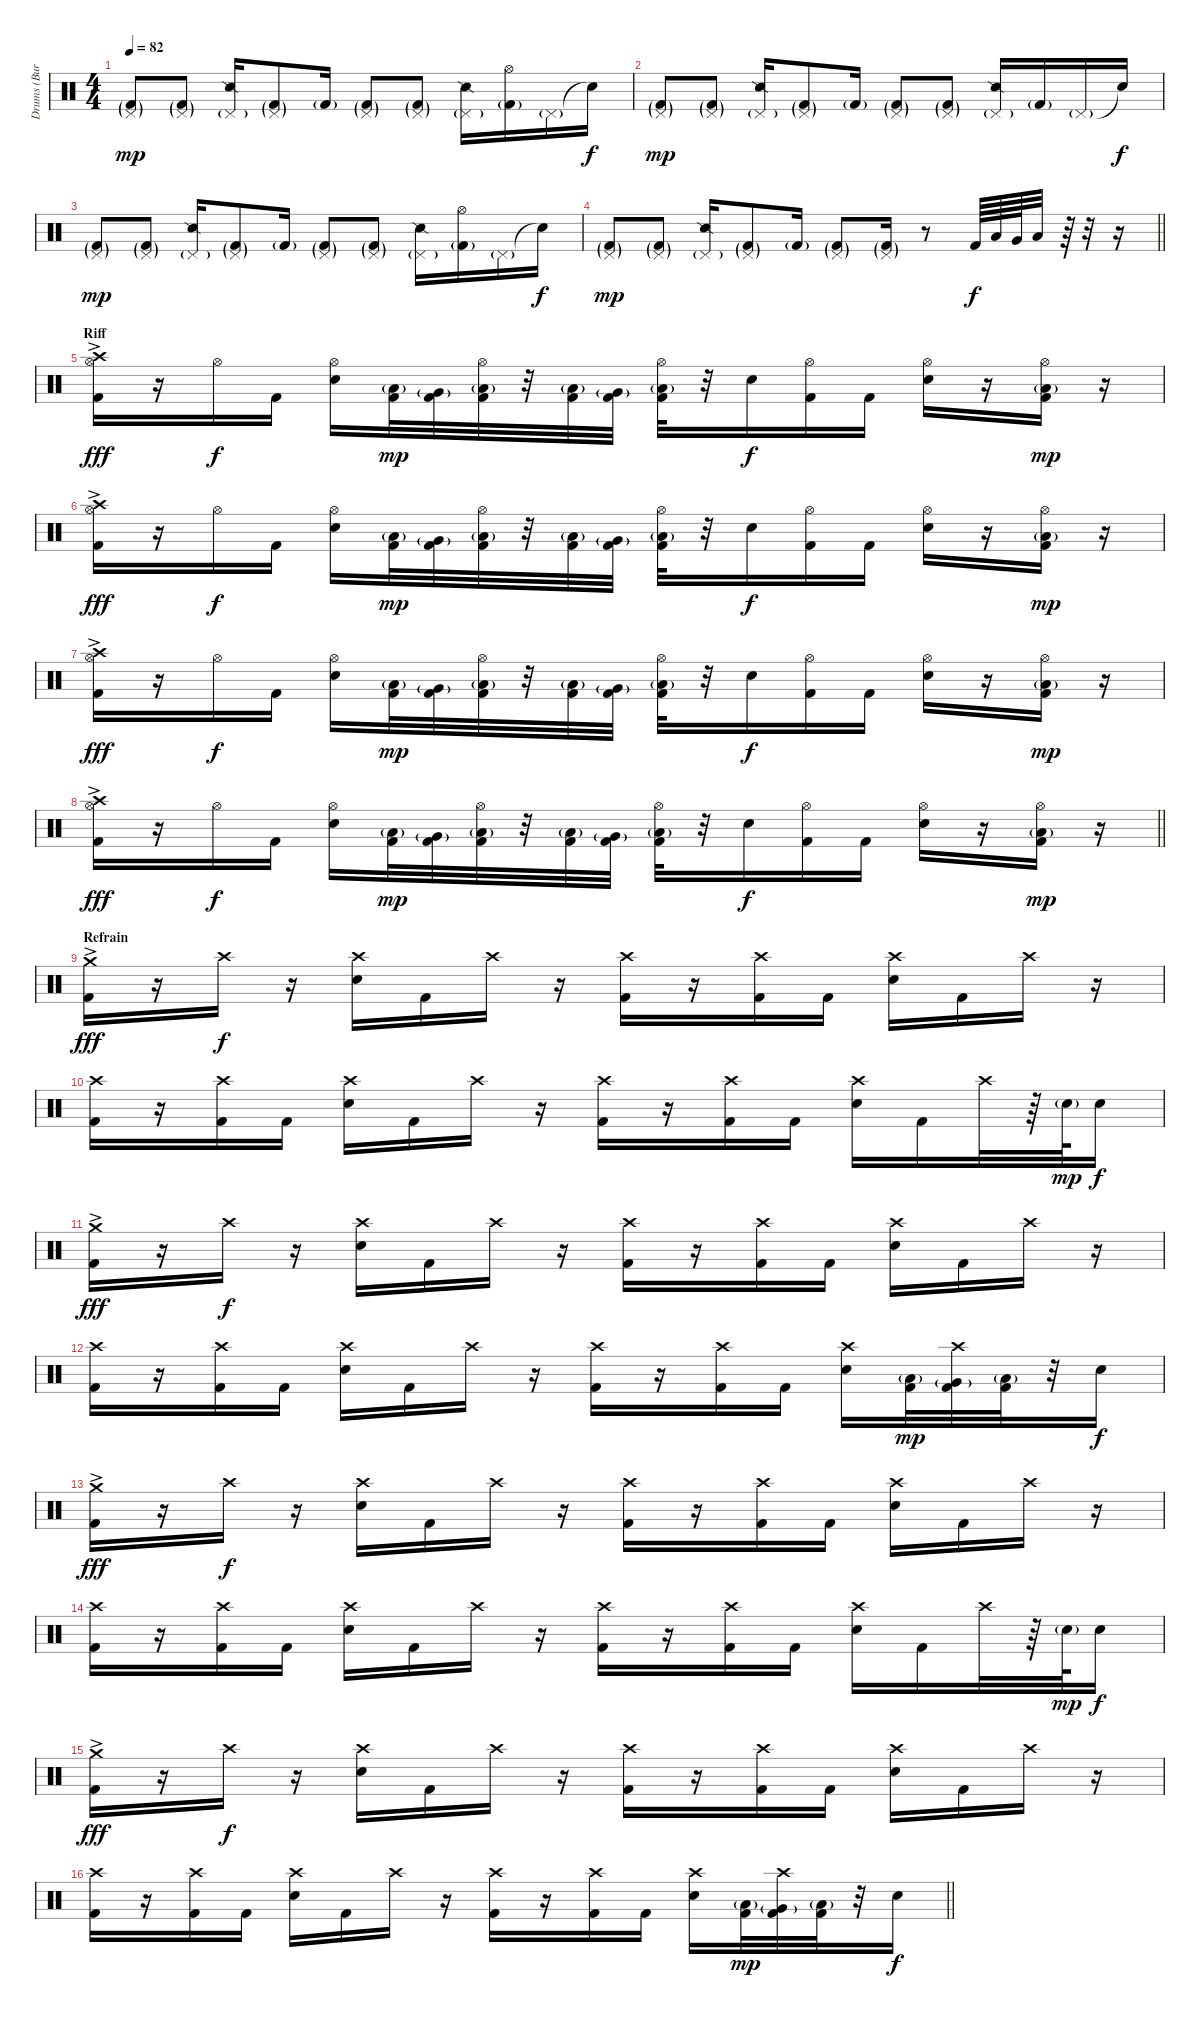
\track ("Drums (Burns)" "Drums (Bur") {instrument percussion}
\staff {score}
\articulation defaults
\ts (4 4)
\tempo 82
\clef neutral
\ks c
("Pedal Hi-Hat (hit)"{g} "Kick (hit) 2"{g}).8{dy mp} ("Pedal Hi-Hat (hit)"{g} "Kick (hit) 2"{g}).8 ("Pedal Hi-Hat (hit)"{g} "Snare (side stick) 2").16 ("Pedal Hi-Hat (hit)"{g} "Kick (hit) 2"{g}).8 "Kick (hit) 2"{g}.16 ("Pedal Hi-Hat (hit)"{g} "Kick (hit) 2"{g}).8 ("Pedal Hi-Hat (hit)"{g} "Kick (hit) 2"{g}).8 ("Pedal Hi-Hat (hit)"{g} "Snare (side stick) 2").16 ("Hi-Hat (open)" "Kick (hit) 2"{g}).16 "Pedal Hi-Hat (hit)"{g}.16 "Snare (hit)"{t}.16{dy f} |
("Pedal Hi-Hat (hit)"{g} "Kick (hit) 2"{g}).8{dy mp} ("Pedal Hi-Hat (hit)"{g} "Kick (hit) 2"{g}).8 ("Pedal Hi-Hat (hit)"{g} "Snare (side stick) 2").16 ("Pedal Hi-Hat (hit)"{g} "Kick (hit) 2"{g}).8 "Kick (hit) 2"{g}.16 ("Pedal Hi-Hat (hit)"{g} "Kick (hit) 2"{g}).8 ("Pedal Hi-Hat (hit)"{g} "Kick (hit) 2"{g}).8 ("Pedal Hi-Hat (hit)"{g} "Snare (side stick) 2").16 "Kick (hit) 2"{g}.16 "Pedal Hi-Hat (hit)"{g}.16 "Snare (hit)"{t}.16{dy f} |
("Pedal Hi-Hat (hit)"{g} "Kick (hit) 2"{g}).8{dy mp} ("Pedal Hi-Hat (hit)"{g} "Kick (hit) 2"{g}).8 ("Pedal Hi-Hat (hit)"{g} "Snare (side stick) 2").16 ("Pedal Hi-Hat (hit)"{g} "Kick (hit) 2"{g}).8 "Kick (hit) 2"{g}.16 ("Pedal Hi-Hat (hit)"{g} "Kick (hit) 2"{g}).8 ("Pedal Hi-Hat (hit)"{g} "Kick (hit) 2"{g}).8 ("Pedal Hi-Hat (hit)"{g} "Snare (side stick) 2").16 ("Hi-Hat (open)" "Kick (hit) 2"{g}).16 "Pedal Hi-Hat (hit)"{g}.16 "Snare (hit)"{t}.16{dy f} |
\barLineRight lightlight
("Pedal Hi-Hat (hit)"{g} "Kick (hit) 2"{g}).8{dy mp} ("Pedal Hi-Hat (hit)"{g} "Kick (hit) 2"{g}).8 ("Pedal Hi-Hat (hit)"{g} "Snare (side stick) 2").16 ("Pedal Hi-Hat (hit)"{g} "Kick (hit) 2"{g}).8 "Kick (hit) 2"{g}.16 ("Pedal Hi-Hat (hit)"{g} "Kick (hit) 2"{g}).8 ("Pedal Hi-Hat (hit)"{g} "Kick (hit) 2"{g}).16 r.8 "Kick (hit) 2".64{dy f} "Low Tom (hit)".64 "Very Low Tom (hit)".64 "Low Floor Tom (hit)".32 r.64 r.32 r.16 |
\section ("" "Riff")
("Crash high (hit)"{ac} "Hi-Hat (open)" "Kick (hit) 2").16{dy fff} r.16 "Hi-Hat (open)".16{dy f} "Kick (hit) 2".16 ("Hi-Hat (open)" "Electric Snare (hit)").16 ("Low Tom (hit)"{g} "Kick (hit) 2").32{dy mp} ("Very Low Tom (hit)"{g} "Kick (hit) 2").32 ("Hi-Hat (open)" "Low Floor Tom (hit)"{g} "Kick (hit) 2").32 r.32 ("Low Tom (hit)"{g} "Kick (hit) 2").32 ("Very Low Tom (hit)"{g} "Kick (hit) 2").32 ("Hi-Hat (open)" "Low Floor Tom (hit)"{g} "Kick (hit) 2").32 r.32 "Electric Snare (hit)".16{dy f} ("Hi-Hat (open)" "Kick (hit) 2").16 "Kick (hit) 2".16 ("Hi-Hat (open)" "Electric Snare (hit)").16 r.16 ("Hi-Hat (open)" "Low Floor Tom (hit)"{g} "Kick (hit) 2").16{dy mp} r.16 |
("Crash high (hit)"{ac} "Hi-Hat (open)" "Kick (hit) 2").16{dy fff} r.16 "Hi-Hat (open)".16{dy f} "Kick (hit) 2".16 ("Hi-Hat (open)" "Electric Snare (hit)").16 ("Low Tom (hit)"{g} "Kick (hit) 2").32{dy mp} ("Very Low Tom (hit)"{g} "Kick (hit) 2").32 ("Hi-Hat (open)" "Low Floor Tom (hit)"{g} "Kick (hit) 2").32 r.32 ("Low Tom (hit)"{g} "Kick (hit) 2").32 ("Very Low Tom (hit)"{g} "Kick (hit) 2").32 ("Hi-Hat (open)" "Low Floor Tom (hit)"{g} "Kick (hit) 2").32 r.32 "Electric Snare (hit)".16{dy f} ("Hi-Hat (open)" "Kick (hit) 2").16 "Kick (hit) 2".16 ("Hi-Hat (open)" "Electric Snare (hit)").16 r.16 ("Hi-Hat (open)" "Low Floor Tom (hit)"{g} "Kick (hit) 2").16{dy mp} r.16 |
("Crash high (hit)"{ac} "Hi-Hat (open)" "Kick (hit) 2").16{dy fff} r.16 "Hi-Hat (open)".16{dy f} "Kick (hit) 2".16 ("Hi-Hat (open)" "Electric Snare (hit)").16 ("Low Tom (hit)"{g} "Kick (hit) 2").32{dy mp} ("Very Low Tom (hit)"{g} "Kick (hit) 2").32 ("Hi-Hat (open)" "Low Floor Tom (hit)"{g} "Kick (hit) 2").32 r.32 ("Low Tom (hit)"{g} "Kick (hit) 2").32 ("Very Low Tom (hit)"{g} "Kick (hit) 2").32 ("Hi-Hat (open)" "Low Floor Tom (hit)"{g} "Kick (hit) 2").32 r.32 "Electric Snare (hit)".16{dy f} ("Hi-Hat (open)" "Kick (hit) 2").16 "Kick (hit) 2".16 ("Hi-Hat (open)" "Electric Snare (hit)").16 r.16 ("Hi-Hat (open)" "Low Floor Tom (hit)"{g} "Kick (hit) 2").16{dy mp} r.16 |
\barLineRight lightlight
("Crash high (hit)"{ac} "Hi-Hat (open)" "Kick (hit) 2").16{dy fff} r.16 "Hi-Hat (open)".16{dy f} "Kick (hit) 2".16 ("Hi-Hat (open)" "Electric Snare (hit)").16 ("Low Tom (hit)"{g} "Kick (hit) 2").32{dy mp} ("Very Low Tom (hit)"{g} "Kick (hit) 2").32 ("Hi-Hat (open)" "Low Floor Tom (hit)"{g} "Kick (hit) 2").32 r.32 ("Low Tom (hit)"{g} "Kick (hit) 2").32 ("Very Low Tom (hit)"{g} "Kick (hit) 2").32 ("Hi-Hat (open)" "Low Floor Tom (hit)"{g} "Kick (hit) 2").32 r.32 "Electric Snare (hit)".16{dy f} ("Hi-Hat (open)" "Kick (hit) 2").16 "Kick (hit) 2".16 ("Hi-Hat (open)" "Electric Snare (hit)").16 r.16 ("Hi-Hat (open)" "Low Floor Tom (hit)"{g} "Kick (hit) 2").16{dy mp} r.16 |
\section ("" "Refrain")
("Crash medium (hit)"{ac} "Kick (hit) 2").16{dy fff} r.16 "Crash high (hit)".16{dy f} r.16 ("Crash high (hit)" "Electric Snare (hit)").16 "Kick (hit) 2".16 "Crash high (hit)".16 r.16 ("Crash high (hit)" "Kick (hit) 2").16 r.16 ("Crash high (hit)" "Kick (hit) 2").16 "Kick (hit) 2".16 ("Crash high (hit)" "Electric Snare (hit)").16 "Kick (hit) 2".16 "Crash high (hit)".16 r.16 |
("Crash high (hit)" "Kick (hit) 2").16 r.16 ("Crash high (hit)" "Kick (hit) 2").16 "Kick (hit) 2".16 ("Crash high (hit)" "Electric Snare (hit)").16 "Kick (hit) 2".16 "Crash high (hit)".16 r.16 ("Crash high (hit)" "Kick (hit) 2").16 r.16 ("Crash high (hit)" "Kick (hit) 2").16 "Kick (hit) 2".16 ("Crash high (hit)" "Electric Snare (hit)").16 "Kick (hit) 2".16 "Crash high (hit)".32 r.64 "Electric Snare (hit)"{g}.64{dy mp} "Electric Snare (hit)".16{dy f} |
("Crash medium (hit)"{ac} "Kick (hit) 2").16{dy fff} r.16 "Crash high (hit)".16{dy f} r.16 ("Crash high (hit)" "Electric Snare (hit)").16 "Kick (hit) 2".16 "Crash high (hit)".16 r.16 ("Crash high (hit)" "Kick (hit) 2").16 r.16 ("Crash high (hit)" "Kick (hit) 2").16 "Kick (hit) 2".16 ("Crash high (hit)" "Electric Snare (hit)").16 "Kick (hit) 2".16 "Crash high (hit)".16 r.16 |
("Crash high (hit)" "Kick (hit) 2").16 r.16 ("Crash high (hit)" "Kick (hit) 2").16 "Kick (hit) 2".16 ("Crash high (hit)" "Electric Snare (hit)").16 "Kick (hit) 2".16 "Crash high (hit)".16 r.16 ("Crash high (hit)" "Kick (hit) 2").16 r.16 ("Crash high (hit)" "Kick (hit) 2").16 "Kick (hit) 2".16 ("Crash high (hit)" "Electric Snare (hit)").16 ("Low Tom (hit)"{g} "Kick (hit) 2").32{dy mp} ("Crash high (hit)" "Very Low Tom (hit)"{g} "Kick (hit) 2").32 ("Low Floor Tom (hit)"{g} "Kick (hit) 2").32 r.32 "Electric Snare (hit)".16{dy f} |
("Crash medium (hit)"{ac} "Kick (hit) 2").16{dy fff} r.16 "Crash high (hit)".16{dy f} r.16 ("Crash high (hit)" "Electric Snare (hit)").16 "Kick (hit) 2".16 "Crash high (hit)".16 r.16 ("Crash high (hit)" "Kick (hit) 2").16 r.16 ("Crash high (hit)" "Kick (hit) 2").16 "Kick (hit) 2".16 ("Crash high (hit)" "Electric Snare (hit)").16 "Kick (hit) 2".16 "Crash high (hit)".16 r.16 |
("Crash high (hit)" "Kick (hit) 2").16 r.16 ("Crash high (hit)" "Kick (hit) 2").16 "Kick (hit) 2".16 ("Crash high (hit)" "Electric Snare (hit)").16 "Kick (hit) 2".16 "Crash high (hit)".16 r.16 ("Crash high (hit)" "Kick (hit) 2").16 r.16 ("Crash high (hit)" "Kick (hit) 2").16 "Kick (hit) 2".16 ("Crash high (hit)" "Electric Snare (hit)").16 "Kick (hit) 2".16 "Crash high (hit)".32 r.64 "Electric Snare (hit)"{g}.64{dy mp} "Electric Snare (hit)".16{dy f} |
("Crash medium (hit)"{ac} "Kick (hit) 2").16{dy fff} r.16 "Crash high (hit)".16{dy f} r.16 ("Crash high (hit)" "Electric Snare (hit)").16 "Kick (hit) 2".16 "Crash high (hit)".16 r.16 ("Crash high (hit)" "Kick (hit) 2").16 r.16 ("Crash high (hit)" "Kick (hit) 2").16 "Kick (hit) 2".16 ("Crash high (hit)" "Electric Snare (hit)").16 "Kick (hit) 2".16 "Crash high (hit)".16 r.16 |
\barLineRight lightlight
("Crash high (hit)" "Kick (hit) 2").16 r.16 ("Crash high (hit)" "Kick (hit) 2").16 "Kick (hit) 2".16 ("Crash high (hit)" "Electric Snare (hit)").16 "Kick (hit) 2".16 "Crash high (hit)".16 r.16 ("Crash high (hit)" "Kick (hit) 2").16 r.16 ("Crash high (hit)" "Kick (hit) 2").16 "Kick (hit) 2".16 ("Crash high (hit)" "Electric Snare (hit)").16 ("Low Tom (hit)"{g} "Kick (hit) 2").32{dy mp} ("Crash high (hit)" "Very Low Tom (hit)"{g} "Kick (hit) 2").32 ("Low Floor Tom (hit)"{g} "Kick (hit) 2").32 r.32 "Electric Snare (hit)".16{dy f}
